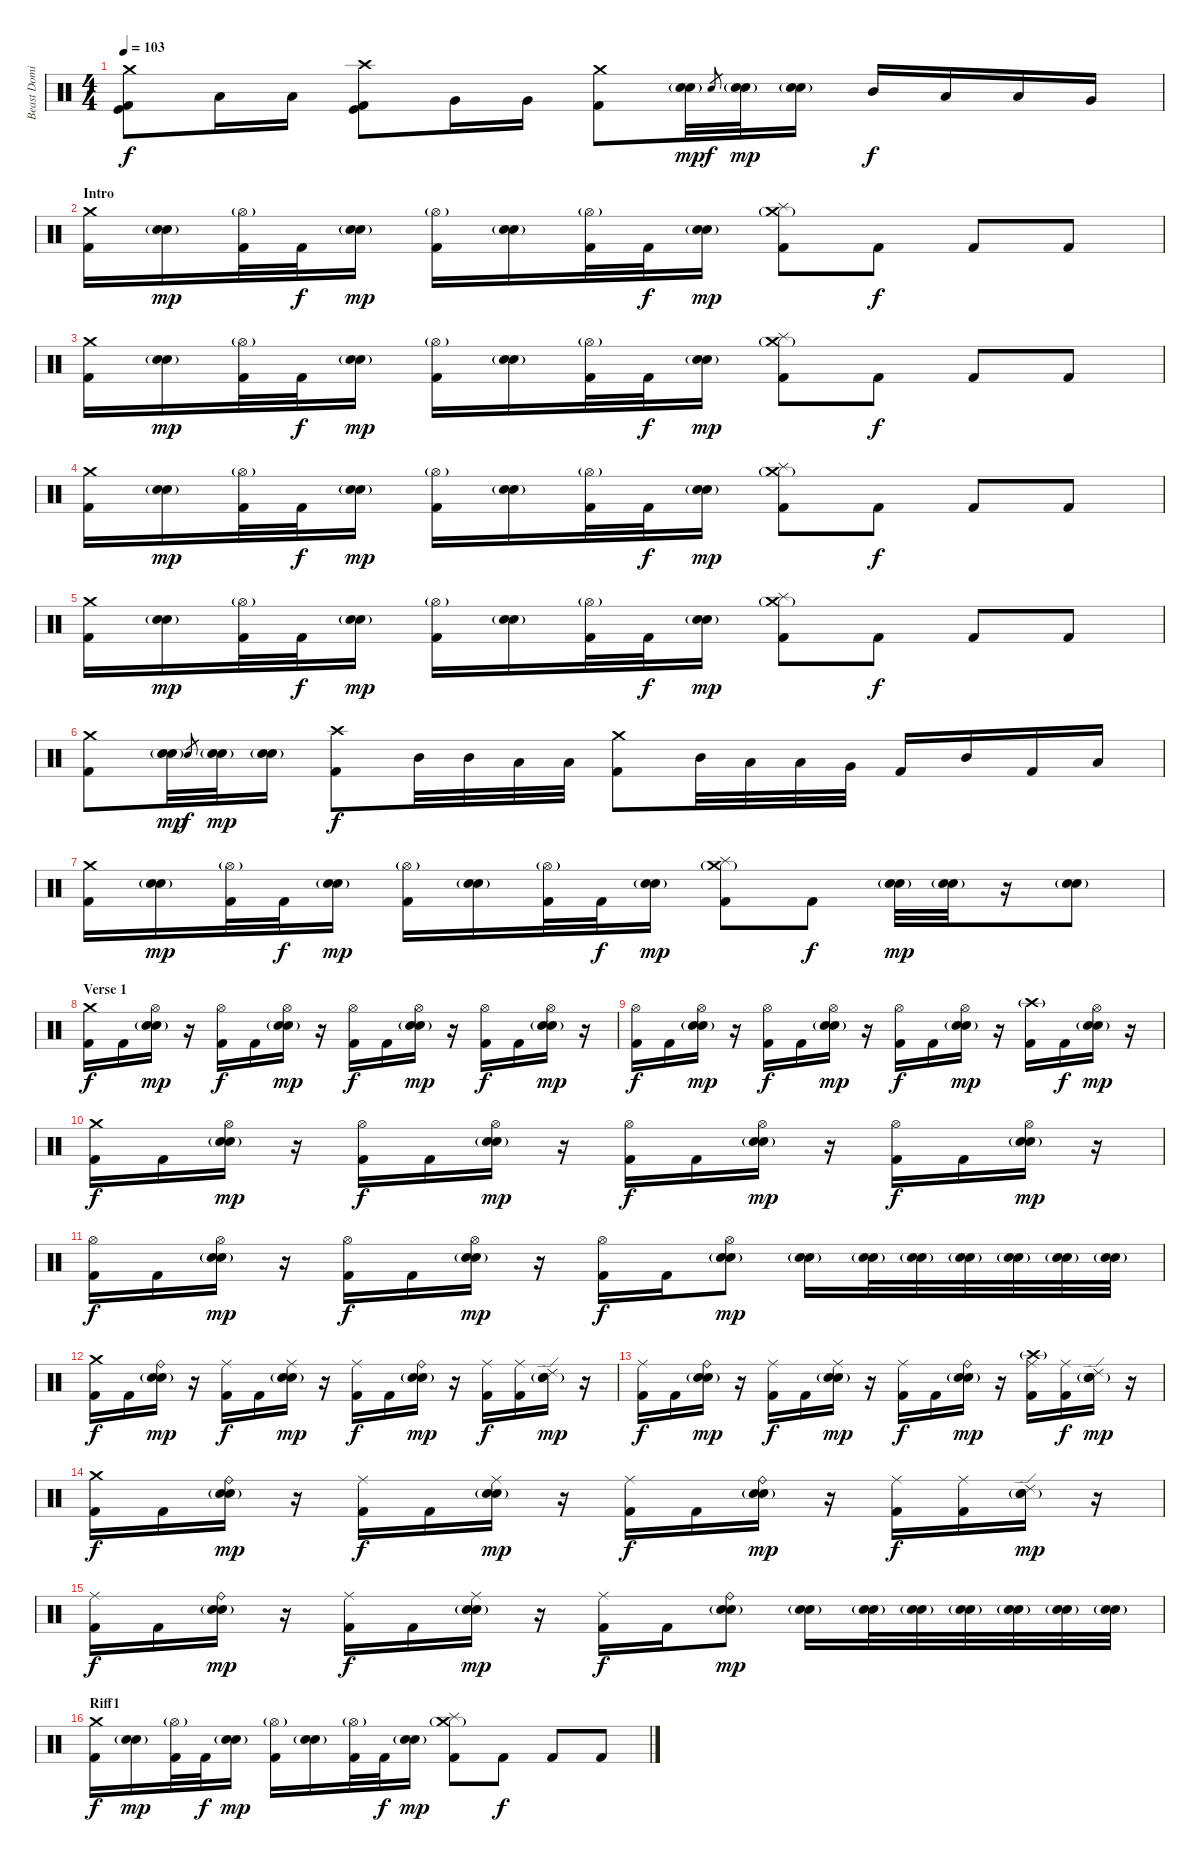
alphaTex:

\track ("Beast Dominator" "Beast Domi") {instrument percussion}
\staff {score}
\articulation defaults
\ts (4 4)
\section ("" "")
\tempo 103
\clef neutral
\ks c
("Crash medium (hit)" "Kick (hit)" "Kick (hit) 2").8{dy f} "Low Tom (hit)".16 "Low Tom (hit)".16 ("Crash high (hit)" "Kick (hit)" "Kick (hit) 2").8 "Very Low Tom (hit)".16 "Very Low Tom (hit)".16 ("Crash medium (hit)" "Kick (hit) 2").8 ("Snare (hit) 2"{x} "Electric Snare (hit)"{g}).32{dy mp} "Snare (hit) 2".8{gr dy f} ("Snare (hit) 2" "Electric Snare (hit)"{g}).32{dy mp} ("Snare (hit) 2" "Electric Snare (hit)"{g}).16 "Mid Tom (hit)".16{dy f} "Low Tom (hit)".16 "Low Tom (hit)".16 "Very Low Tom (hit)".16 |
\section ("" "Intro")
("Crash medium (hit)" "Kick (hit) 2").16 ("Electric Snare (hit)"{g} "Snare (hit) 2").16{dy mp} ("Hi-Hat (open)"{g} "Kick (hit) 2").32 "Kick (hit) 2".32{dy f} ("Electric Snare (hit)"{g} "Snare (hit) 2").16{dy mp} ("Hi-Hat (open)"{g} "Kick (hit) 2").16 ("Electric Snare (hit)"{g} "Snare (hit) 2").16 ("Hi-Hat (open)"{g} "Kick (hit) 2").32 "Kick (hit) 2".32{dy f} ("Electric Snare (hit)"{g} "Snare (hit) 2").16{dy mp} ("Crash medium (hit)"{g} "Splash (hit)" "Kick (hit) 2").8 "Kick (hit) 2".8{dy f} "Kick (hit) 2".8 "Kick (hit) 2".8 |
("Crash medium (hit)" "Kick (hit) 2").16 ("Electric Snare (hit)"{g} "Snare (hit) 2").16{dy mp} ("Hi-Hat (open)"{g} "Kick (hit) 2").32 "Kick (hit) 2".32{dy f} ("Electric Snare (hit)"{g} "Snare (hit) 2").16{dy mp} ("Hi-Hat (open)"{g} "Kick (hit) 2").16 ("Electric Snare (hit)"{g} "Snare (hit) 2").16 ("Hi-Hat (open)"{g} "Kick (hit) 2").32 "Kick (hit) 2".32{dy f} ("Electric Snare (hit)"{g} "Snare (hit) 2").16{dy mp} ("Crash medium (hit)"{g} "Splash (hit)" "Kick (hit) 2").8 "Kick (hit) 2".8{dy f} "Kick (hit) 2".8 "Kick (hit) 2".8 |
("Crash medium (hit)" "Kick (hit) 2").16 ("Electric Snare (hit)"{g} "Snare (hit) 2").16{dy mp} ("Hi-Hat (open)"{g} "Kick (hit) 2").32 "Kick (hit) 2".32{dy f} ("Electric Snare (hit)"{g} "Snare (hit) 2").16{dy mp} ("Hi-Hat (open)"{g} "Kick (hit) 2").16 ("Electric Snare (hit)"{g} "Snare (hit) 2").16 ("Hi-Hat (open)"{g} "Kick (hit) 2").32 "Kick (hit) 2".32{dy f} ("Electric Snare (hit)"{g} "Snare (hit) 2").16{dy mp} ("Crash medium (hit)"{g} "Splash (hit)" "Kick (hit) 2").8 "Kick (hit) 2".8{dy f} "Kick (hit) 2".8 "Kick (hit) 2".8 |
("Crash medium (hit)" "Kick (hit) 2").16 ("Electric Snare (hit)"{g} "Snare (hit) 2").16{dy mp} ("Hi-Hat (open)"{g} "Kick (hit) 2").32 "Kick (hit) 2".32{dy f} ("Electric Snare (hit)"{g} "Snare (hit) 2").16{dy mp} ("Hi-Hat (open)"{g} "Kick (hit) 2").16 ("Electric Snare (hit)"{g} "Snare (hit) 2").16 ("Hi-Hat (open)"{g} "Kick (hit) 2").32 "Kick (hit) 2".32{dy f} ("Electric Snare (hit)"{g} "Snare (hit) 2").16{dy mp} ("Crash medium (hit)"{g} "Splash (hit)" "Kick (hit) 2").8 "Kick (hit) 2".8{dy f} "Kick (hit) 2".8 "Kick (hit) 2".8 |
\section ("" "")
("Crash medium (hit)" "Kick (hit) 2").8 ("Snare (hit) 2"{x} "Electric Snare (hit)"{g}).32{dy mp} "Snare (hit) 2".8{gr dy f} ("Snare (hit) 2" "Electric Snare (hit)"{g}).32{dy mp} ("Snare (hit) 2" "Electric Snare (hit)"{g}).16 ("Crash high (hit)" "Kick (hit) 2").8{dy f} "Mid Tom (hit)".32 "Mid Tom (hit)".32 "Low Tom (hit)".32 "Low Tom (hit)".32 ("Crash medium (hit)" "Kick (hit) 2").8 "Mid Tom (hit)".32 "Low Tom (hit)".32 "Low Tom (hit)".32 "Very Low Tom (hit)".32 "Kick (hit) 2".16 "Mid Tom (hit)".16 "Kick (hit) 2".16 "Low Tom (hit)".16 |
("Crash medium (hit)" "Kick (hit) 2").16 ("Electric Snare (hit)"{g} "Snare (hit) 2").16{dy mp} ("Hi-Hat (open)"{g} "Kick (hit) 2").32 "Kick (hit) 2".32{dy f} ("Electric Snare (hit)"{g} "Snare (hit) 2").16{dy mp} ("Hi-Hat (open)"{g} "Kick (hit) 2").16 ("Electric Snare (hit)"{g} "Snare (hit) 2").16 ("Hi-Hat (open)"{g} "Kick (hit) 2").32 "Kick (hit) 2".32{dy f} ("Electric Snare (hit)"{g} "Snare (hit) 2").16{dy mp} ("Crash medium (hit)"{g} "Splash (hit)" "Kick (hit) 2").8 "Kick (hit) 2".8{dy f} ("Electric Snare (hit)"{g} "Snare (hit) 2").32{dy mp} ("Electric Snare (hit)"{g} "Snare (hit) 2").32 r.16 ("Electric Snare (hit)"{g} "Snare (hit) 2").8 |
\section ("" "Verse 1")
("Crash medium (hit)" "Kick (hit) 2").16{dy f} "Kick (hit) 2".16 ("Hi-Hat (open)" "Electric Snare (hit)"{g} "Snare (hit) 2").16{dy mp} r.16 ("Hi-Hat (open)" "Kick (hit) 2").16{dy f} "Kick (hit) 2".16 ("Hi-Hat (open)" "Electric Snare (hit)"{g} "Snare (hit) 2").16{dy mp} r.16 ("Hi-Hat (open)" "Kick (hit) 2").16{dy f} "Kick (hit) 2".16 ("Hi-Hat (open)" "Electric Snare (hit)"{g} "Snare (hit) 2").16{dy mp} r.16 ("Hi-Hat (open)" "Kick (hit) 2").16{dy f} "Kick (hit) 2".16 ("Hi-Hat (open)" "Electric Snare (hit)"{g} "Snare (hit) 2").16{dy mp} r.16 |
("Hi-Hat (open)" "Kick (hit) 2").16{dy f} "Kick (hit) 2".16 ("Hi-Hat (open)" "Electric Snare (hit)"{g} "Snare (hit) 2").16{dy mp} r.16 ("Hi-Hat (open)" "Kick (hit) 2").16{dy f} "Kick (hit) 2".16 ("Hi-Hat (open)" "Electric Snare (hit)"{g} "Snare (hit) 2").16{dy mp} r.16 ("Hi-Hat (open)" "Kick (hit) 2").16{dy f} "Kick (hit) 2".16 ("Hi-Hat (open)" "Electric Snare (hit)"{g} "Snare (hit) 2").16{dy mp} r.16 ("Crash high (hit)"{g} "Kick (hit) 2").16 "Kick (hit) 2".16{dy f} ("Hi-Hat (open)" "Electric Snare (hit)"{g} "Snare (hit) 2").16{dy mp} r.16 |
("Crash medium (hit)" "Kick (hit) 2").16{dy f} "Kick (hit) 2".16 ("Hi-Hat (open)" "Electric Snare (hit)"{g} "Snare (hit) 2").16{dy mp} r.16 ("Hi-Hat (open)" "Kick (hit) 2").16{dy f} "Kick (hit) 2".16 ("Hi-Hat (open)" "Electric Snare (hit)"{g} "Snare (hit) 2").16{dy mp} r.16 ("Hi-Hat (open)" "Kick (hit) 2").16{dy f} "Kick (hit) 2".16 ("Hi-Hat (open)" "Electric Snare (hit)"{g} "Snare (hit) 2").16{dy mp} r.16 ("Hi-Hat (open)" "Kick (hit) 2").16{dy f} "Kick (hit) 2".16 ("Hi-Hat (open)" "Electric Snare (hit)"{g} "Snare (hit) 2").16{dy mp} r.16 |
("Hi-Hat (open)" "Kick (hit) 2").16{dy f} "Kick (hit) 2".16 ("Hi-Hat (open)" "Electric Snare (hit)"{g} "Snare (hit) 2").16{dy mp} r.16 ("Hi-Hat (open)" "Kick (hit) 2").16{dy f} "Kick (hit) 2".16 ("Hi-Hat (open)" "Electric Snare (hit)"{g} "Snare (hit) 2").16{dy mp} r.16 ("Hi-Hat (open)" "Kick (hit) 2").16{dy f} "Kick (hit) 2".16 ("Hi-Hat (open)" "Electric Snare (hit)"{g} "Snare (hit) 2").8{dy mp} ("Electric Snare (hit)"{g} "Snare (hit) 2").16 ("Electric Snare (hit)"{g} "Snare (hit) 2").32 ("Electric Snare (hit)"{g} "Snare (hit) 2").32 ("Electric Snare (hit)"{g} "Snare (hit) 2").32 ("Electric Snare (hit)"{g} "Snare (hit) 2").32 ("Electric Snare (hit)"{g} "Snare (hit) 2").32 ("Electric Snare (hit)"{g} "Snare (hit) 2").32 |
\section ("" "")
("Crash medium (hit)" "Kick (hit) 2").16{dy f} "Kick (hit) 2".16 ("Ride (bell)" "Electric Snare (hit)"{g} "Snare (hit) 2").16{dy mp} r.16 ("Ride (middle)" "Kick (hit) 2").16{dy f} "Kick (hit) 2".16 ("Ride (middle)" "Electric Snare (hit)"{g} "Snare (hit) 2").16{dy mp} r.16 ("Ride (middle)" "Kick (hit) 2").16{dy f} "Kick (hit) 2".16 ("Ride (bell)" "Electric Snare (hit)"{g} "Snare (hit) 2").16{dy mp} r.16 ("Ride (middle)" "Kick (hit) 2").16{dy f} ("Ride (middle)" "Kick (hit) 2").16 ("Ride (edge) 2" "Electric Snare (hit)"{g} "Snare (hit) 2").16{dy mp} r.16 |
("Ride (middle)" "Kick (hit) 2").16{dy f} "Kick (hit) 2".16 ("Ride (bell)" "Electric Snare (hit)"{g} "Snare (hit) 2").16{dy mp} r.16 ("Ride (middle)" "Kick (hit) 2").16{dy f} "Kick (hit) 2".16 ("Ride (middle)" "Electric Snare (hit)"{g} "Snare (hit) 2").16{dy mp} r.16 ("Ride (middle)" "Kick (hit) 2").16{dy f} "Kick (hit) 2".16 ("Ride (bell)" "Electric Snare (hit)"{g} "Snare (hit) 2").16{dy mp} r.16 ("Crash high (hit)"{g} "Ride (middle)" "Kick (hit) 2").16 ("Ride (middle)" "Kick (hit) 2").16{dy f} ("Ride (edge) 2" "Electric Snare (hit)"{g} "Snare (hit) 2").16{dy mp} r.16 |
("Crash medium (hit)" "Kick (hit) 2").16{dy f} "Kick (hit) 2".16 ("Ride (bell)" "Electric Snare (hit)"{g} "Snare (hit) 2").16{dy mp} r.16 ("Ride (middle)" "Kick (hit) 2").16{dy f} "Kick (hit) 2".16 ("Ride (middle)" "Electric Snare (hit)"{g} "Snare (hit) 2").16{dy mp} r.16 ("Ride (middle)" "Kick (hit) 2").16{dy f} "Kick (hit) 2".16 ("Ride (bell)" "Electric Snare (hit)"{g} "Snare (hit) 2").16{dy mp} r.16 ("Ride (middle)" "Kick (hit) 2").16{dy f} ("Ride (middle)" "Kick (hit) 2").16 ("Ride (edge) 2" "Electric Snare (hit)"{g} "Snare (hit) 2").16{dy mp} r.16 |
("Ride (middle)" "Kick (hit) 2").16{dy f} "Kick (hit) 2".16 ("Ride (bell)" "Electric Snare (hit)"{g} "Snare (hit) 2").16{dy mp} r.16 ("Ride (middle)" "Kick (hit) 2").16{dy f} "Kick (hit) 2".16 ("Ride (middle)" "Electric Snare (hit)"{g} "Snare (hit) 2").16{dy mp} r.16 ("Ride (middle)" "Kick (hit) 2").16{dy f} "Kick (hit) 2".16 ("Ride (bell)" "Electric Snare (hit)"{g} "Snare (hit) 2").8{dy mp} ("Electric Snare (hit)"{g} "Snare (hit) 2").16 ("Electric Snare (hit)"{g} "Snare (hit) 2").32 ("Electric Snare (hit)"{g} "Snare (hit) 2").32 ("Electric Snare (hit)"{g} "Snare (hit) 2").32 ("Electric Snare (hit)"{g} "Snare (hit) 2").32 ("Electric Snare (hit)"{g} "Snare (hit) 2").32 ("Electric Snare (hit)"{g} "Snare (hit) 2").32 |
\section ("" "Riff1")
("Crash medium (hit)" "Kick (hit) 2").16{dy f} ("Electric Snare (hit)"{g} "Snare (hit) 2").16{dy mp} ("Hi-Hat (open)"{g} "Kick (hit) 2").32 "Kick (hit) 2".32{dy f} ("Electric Snare (hit)"{g} "Snare (hit) 2").16{dy mp} ("Hi-Hat (open)"{g} "Kick (hit) 2").16 ("Electric Snare (hit)"{g} "Snare (hit) 2").16 ("Hi-Hat (open)"{g} "Kick (hit) 2").32 "Kick (hit) 2".32{dy f} ("Electric Snare (hit)"{g} "Snare (hit) 2").16{dy mp} ("Crash medium (hit)"{g} "Splash (hit)" "Kick (hit) 2").8 "Kick (hit) 2".8{dy f} "Kick (hit) 2".8 "Kick (hit) 2".8
